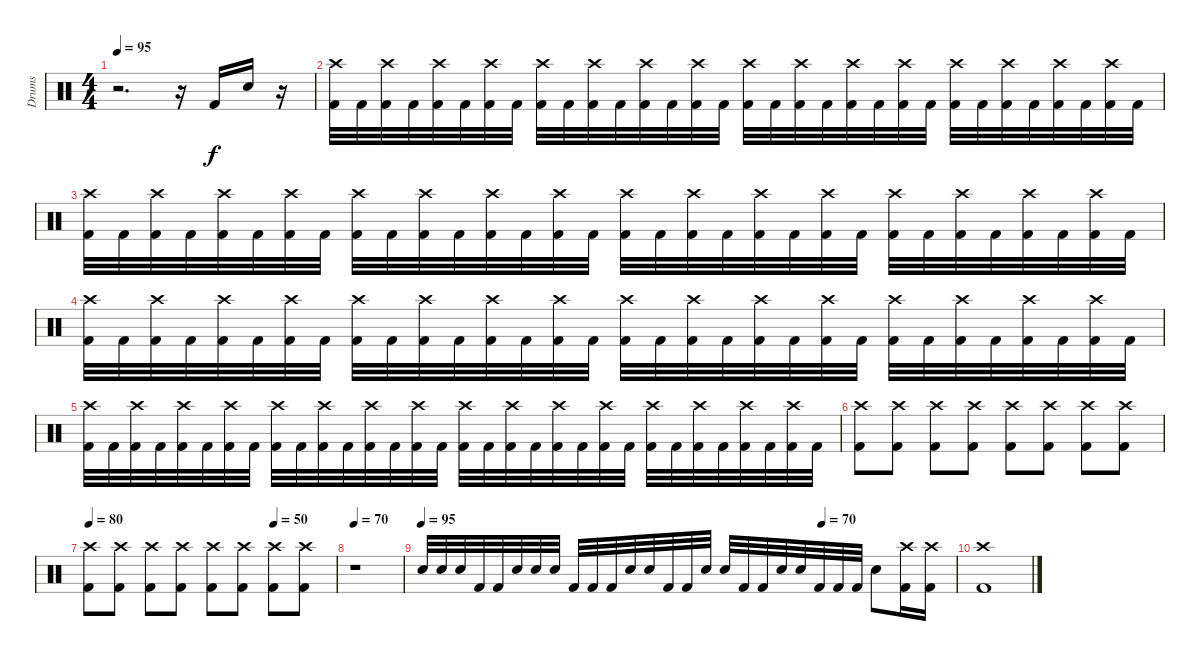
\track ("Drums" "Drums") {instrument percussion}
\staff {score}
\articulation defaults
\ts (4 4)
\tempo 95
\clef neutral
\ks c
r.2{d dy f} r.16 "Kick (hit) 2".16 "Electric Snare (hit)".16 r.16 |
("Crash high (hit)" "Kick (hit) 2").32 "Kick (hit) 2".32 ("Crash high (hit)" "Kick (hit) 2").32 "Kick (hit) 2".32 ("Crash high (hit)" "Kick (hit) 2").32 "Kick (hit) 2".32 ("Crash high (hit)" "Kick (hit) 2").32 "Kick (hit) 2".32 ("Crash high (hit)" "Kick (hit) 2").32 "Kick (hit) 2".32 ("Crash high (hit)" "Kick (hit) 2").32 "Kick (hit) 2".32 ("Crash high (hit)" "Kick (hit) 2").32 "Kick (hit) 2".32 ("Crash high (hit)" "Kick (hit) 2").32 "Kick (hit) 2".32 ("Crash high (hit)" "Kick (hit) 2").32 "Kick (hit) 2".32 ("Crash high (hit)" "Kick (hit) 2").32 "Kick (hit) 2".32 ("Crash high (hit)" "Kick (hit) 2").32 "Kick (hit) 2".32 ("Crash high (hit)" "Kick (hit) 2").32 "Kick (hit) 2".32 ("Crash high (hit)" "Kick (hit) 2").32 "Kick (hit) 2".32 ("Crash high (hit)" "Kick (hit) 2").32 "Kick (hit) 2".32 ("Crash high (hit)" "Kick (hit) 2").32 "Kick (hit) 2".32 ("Crash high (hit)" "Kick (hit) 2").32 "Kick (hit) 2".32 |
("Crash high (hit)" "Kick (hit) 2").32 "Kick (hit) 2".32 ("Crash high (hit)" "Kick (hit) 2").32 "Kick (hit) 2".32 ("Crash high (hit)" "Kick (hit) 2").32 "Kick (hit) 2".32 ("Crash high (hit)" "Kick (hit) 2").32 "Kick (hit) 2".32 ("Crash high (hit)" "Kick (hit) 2").32 "Kick (hit) 2".32 ("Crash high (hit)" "Kick (hit) 2").32 "Kick (hit) 2".32 ("Crash high (hit)" "Kick (hit) 2").32 "Kick (hit) 2".32 ("Crash high (hit)" "Kick (hit) 2").32 "Kick (hit) 2".32 ("Crash high (hit)" "Kick (hit) 2").32 "Kick (hit) 2".32 ("Crash high (hit)" "Kick (hit) 2").32 "Kick (hit) 2".32 ("Crash high (hit)" "Kick (hit) 2").32 "Kick (hit) 2".32 ("Crash high (hit)" "Kick (hit) 2").32 "Kick (hit) 2".32 ("Crash high (hit)" "Kick (hit) 2").32 "Kick (hit) 2".32 ("Crash high (hit)" "Kick (hit) 2").32 "Kick (hit) 2".32 ("Crash high (hit)" "Kick (hit) 2").32 "Kick (hit) 2".32 ("Crash high (hit)" "Kick (hit) 2").32 "Kick (hit) 2".32 |
("Crash high (hit)" "Kick (hit) 2").32 "Kick (hit) 2".32 ("Crash high (hit)" "Kick (hit) 2").32 "Kick (hit) 2".32 ("Crash high (hit)" "Kick (hit) 2").32 "Kick (hit) 2".32 ("Crash high (hit)" "Kick (hit) 2").32 "Kick (hit) 2".32 ("Crash high (hit)" "Kick (hit) 2").32 "Kick (hit) 2".32 ("Crash high (hit)" "Kick (hit) 2").32 "Kick (hit) 2".32 ("Crash high (hit)" "Kick (hit) 2").32 "Kick (hit) 2".32 ("Crash high (hit)" "Kick (hit) 2").32 "Kick (hit) 2".32 ("Crash high (hit)" "Kick (hit) 2").32 "Kick (hit) 2".32 ("Crash high (hit)" "Kick (hit) 2").32 "Kick (hit) 2".32 ("Crash high (hit)" "Kick (hit) 2").32 "Kick (hit) 2".32 ("Crash high (hit)" "Kick (hit) 2").32 "Kick (hit) 2".32 ("Crash high (hit)" "Kick (hit) 2").32 "Kick (hit) 2".32 ("Crash high (hit)" "Kick (hit) 2").32 "Kick (hit) 2".32 ("Crash high (hit)" "Kick (hit) 2").32 "Kick (hit) 2".32 ("Crash high (hit)" "Kick (hit) 2").32 "Kick (hit) 2".32 |
("Crash high (hit)" "Kick (hit) 2").32 "Kick (hit) 2".32 ("Crash high (hit)" "Kick (hit) 2").32 "Kick (hit) 2".32 ("Crash high (hit)" "Kick (hit) 2").32 "Kick (hit) 2".32 ("Crash high (hit)" "Kick (hit) 2").32 "Kick (hit) 2".32 ("Crash high (hit)" "Kick (hit) 2").32 "Kick (hit) 2".32 ("Crash high (hit)" "Kick (hit) 2").32 "Kick (hit) 2".32 ("Crash high (hit)" "Kick (hit) 2").32 "Kick (hit) 2".32 ("Crash high (hit)" "Kick (hit) 2").32 "Kick (hit) 2".32 ("Crash high (hit)" "Kick (hit) 2").32 "Kick (hit) 2".32 ("Crash high (hit)" "Kick (hit) 2").32 "Kick (hit) 2".32 ("Crash high (hit)" "Kick (hit) 2").32 "Kick (hit) 2".32 ("Crash high (hit)" "Kick (hit) 2").32 "Kick (hit) 2".32 ("Crash high (hit)" "Kick (hit) 2").32 "Kick (hit) 2".32 ("Crash high (hit)" "Kick (hit) 2").32 "Kick (hit) 2".32 ("Crash high (hit)" "Kick (hit) 2").32 "Kick (hit) 2".32 ("Crash high (hit)" "Kick (hit) 2").32 "Kick (hit) 2".32 |
("Crash high (hit)" "Kick (hit) 2").8 ("Crash high (hit)" "Kick (hit) 2").8 ("Crash high (hit)" "Kick (hit) 2").8 ("Crash high (hit)" "Kick (hit) 2").8 ("Crash high (hit)" "Kick (hit) 2").8 ("Crash high (hit)" "Kick (hit) 2").8 ("Crash high (hit)" "Kick (hit) 2").8 ("Crash high (hit)" "Kick (hit) 2").8 |
\tempo 80
\tempo (50 0.75)
("Crash high (hit)" "Kick (hit) 2").8 ("Crash high (hit)" "Kick (hit) 2").8 ("Crash high (hit)" "Kick (hit) 2").8 ("Crash high (hit)" "Kick (hit) 2").8 ("Crash high (hit)" "Kick (hit) 2").8 ("Crash high (hit)" "Kick (hit) 2").8 ("Crash high (hit)" "Kick (hit) 2").8 ("Crash high (hit)" "Kick (hit) 2").8 |
\tempo 70
r.1 |
\tempo 95
\tempo (70 0.75)
"Electric Snare (hit)".32 "Electric Snare (hit)".32 "Electric Snare (hit)".32 "Kick (hit) 2".32 "Kick (hit) 2".32 "Electric Snare (hit)".32 "Electric Snare (hit)".32 "Electric Snare (hit)".32 "Kick (hit) 2".32 "Kick (hit) 2".32 "Kick (hit) 2".32 "Electric Snare (hit)".32 "Electric Snare (hit)".32 "Kick (hit) 2".32 "Kick (hit) 2".32 "Electric Snare (hit)".32 "Electric Snare (hit)".32 "Kick (hit) 2".32 "Kick (hit) 2".32 "Electric Snare (hit)".32 "Electric Snare (hit)".32 "Kick (hit) 2".32 "Kick (hit) 2".32 "Kick (hit) 2".32 "Electric Snare (hit)".8 ("Crash high (hit)" "Kick (hit) 2").16 ("Crash high (hit)" "Kick (hit) 2").16 |
("Crash high (hit)" "Kick (hit) 2").1
